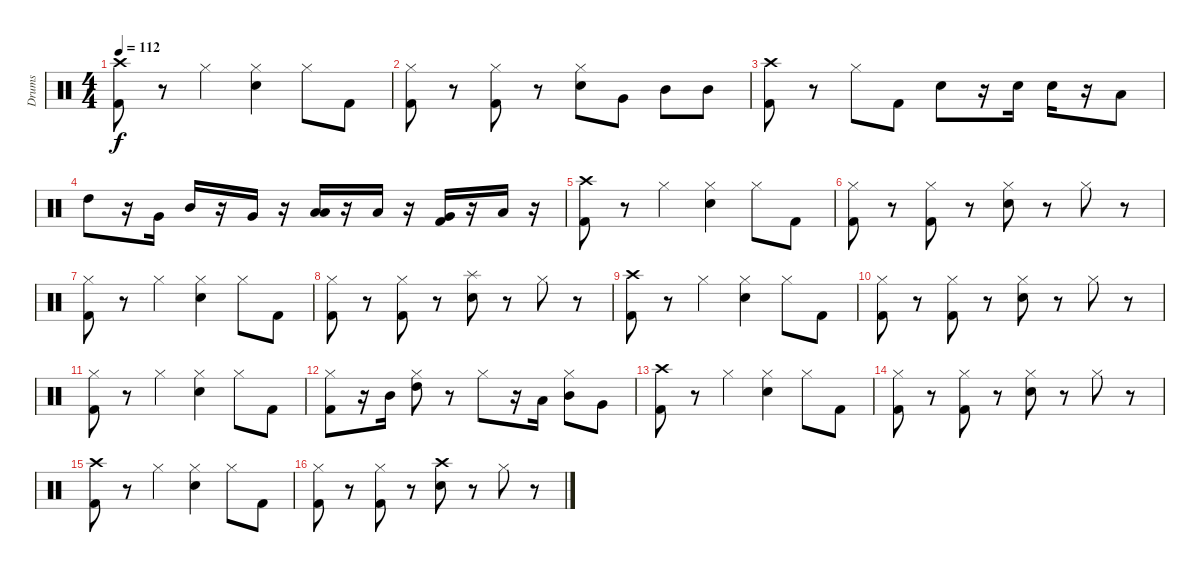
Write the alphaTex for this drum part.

\track ("Drums" "Drums") {instrument percussion}
\staff {score}
\articulation defaults
\ts (4 4)
\tempo 112
\clef neutral
\ks c
("Crash high (hit)" "Kick (hit) 2").8{dy f} r.8 "Hi-Hat (closed)".4 ("Hi-Hat (closed)" "Electric Snare (hit)").4 "Hi-Hat (closed)".8 "Kick (hit) 2".8 |
("Hi-Hat (closed)" "Kick (hit) 2").8 r.8 ("Kick (hit) 2" "Hi-Hat (closed)").8 r.8 ("Hi-Hat (closed)" "Electric Snare (hit)").8 "Very Low Tom (hit)".8 "Mid Tom (hit)".8 "Mid Tom (hit)".8 |
("Kick (hit) 2" "Crash high (hit)").8 r.8 "Hi-Hat (closed)".8 "Kick (hit) 2".8 "Electric Snare (hit)".8 r.16 "Electric Snare (hit)".16 "Electric Snare (hit)".16 r.16 "Low Tom (hit)".8 |
"High Tom (hit)".8 r.16 "Very Low Tom (hit)".16 "Mid Tom (hit)".16 r.16 "Very Low Tom (hit)".16 r.16 ("Low Tom (hit)" "Low Floor Tom (hit)").16 r.16 "Low Floor Tom (hit)".16 r.16 ("Kick (hit) 2" "Very Low Tom (hit)").16 r.16 "Low Floor Tom (hit)".16 r.16 |
("Crash high (hit)" "Kick (hit) 2").8 r.8 "Hi-Hat (closed)".4 ("Electric Snare (hit)" "Hi-Hat (closed)").4 "Hi-Hat (closed)".8 "Kick (hit) 2".8 |
("Kick (hit) 2" "Hi-Hat (closed)").8 r.8 ("Kick (hit) 2" "Hi-Hat (closed)").8 r.8 ("Hi-Hat (closed)" "Electric Snare (hit)").8 r.8 "Hi-Hat (closed)".8 r.8 |
("Hi-Hat (closed)" "Kick (hit) 2").8 r.8 "Hi-Hat (closed)".4 ("Electric Snare (hit)" "Hi-Hat (closed)").4 "Hi-Hat (closed)".8 "Kick (hit) 2".8 |
("Kick (hit) 2" "Hi-Hat (closed)").8 r.8 ("Hi-Hat (closed)" "Kick (hit) 2").8 r.8 ("Electric Snare (hit)" "Splash (hit)").8 r.8 "Hi-Hat (closed)".8 r.8 |
("Kick (hit) 2" "Crash high (hit)").8 r.8 "Hi-Hat (closed)".4 ("Hi-Hat (closed)" "Electric Snare (hit)").4 "Hi-Hat (closed)".8 "Kick (hit) 2".8 |
("Kick (hit) 2" "Hi-Hat (closed)").8 r.8 ("Hi-Hat (closed)" "Kick (hit) 2").8 r.8 ("Hi-Hat (closed)" "Electric Snare (hit)").8 r.8 "Hi-Hat (closed)".8 r.8 |
("Hi-Hat (closed)" "Kick (hit) 2").8 r.8 "Hi-Hat (closed)".4 ("Electric Snare (hit)" "Hi-Hat (closed)").4 "Hi-Hat (closed)".8 "Kick (hit) 2".8 |
("Hi-Hat (closed)" "Kick (hit) 2").8 r.16 "Mid Tom (hit)".16 ("High Tom (hit)" "Hi-Hat (closed)").8 r.8 "Hi-Hat (closed)".8 r.16 "Low Tom (hit)".16 ("Mid Tom (hit)" "Hi-Hat (closed)").8 "Very Low Tom (hit)".8 |
("Crash high (hit)" "Kick (hit) 2").8 r.8 "Hi-Hat (closed)".4 ("Hi-Hat (closed)" "Electric Snare (hit)").4 "Hi-Hat (closed)".8 "Kick (hit) 2".8 |
("Hi-Hat (closed)" "Kick (hit) 2").8 r.8 ("Hi-Hat (closed)" "Kick (hit) 2").8 r.8 ("Hi-Hat (closed)" "Electric Snare (hit)").8 r.8 "Hi-Hat (closed)".8 r.8 |
("Crash high (hit)" "Kick (hit) 2").8 r.8 "Hi-Hat (closed)".4 ("Electric Snare (hit)" "Hi-Hat (closed)").4 "Hi-Hat (closed)".8 "Kick (hit) 2".8 |
("Hi-Hat (closed)" "Kick (hit) 2").8 r.8 ("Hi-Hat (closed)" "Kick (hit) 2").8 r.8 ("Crash high (hit)" "Electric Snare (hit)").8 r.8 "Hi-Hat (closed)".8 r.8
